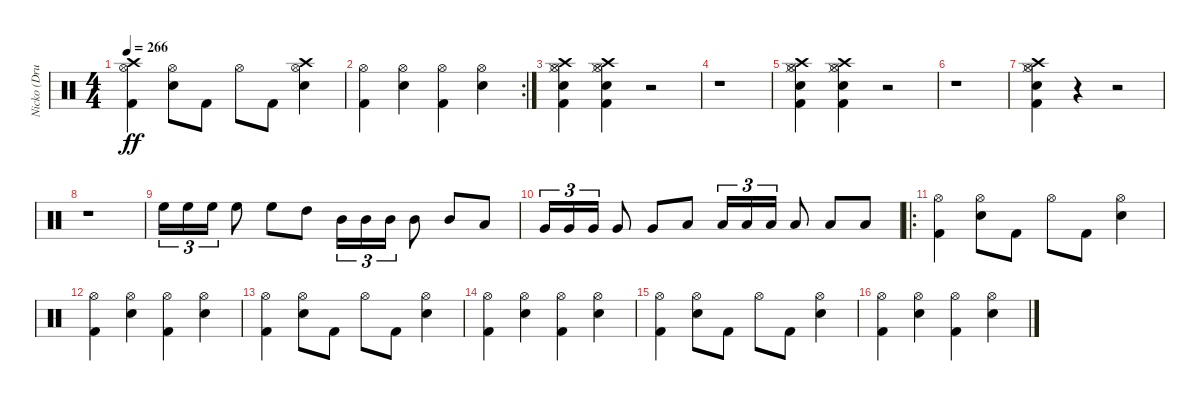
\track ("Nicko (Drums)" "Nicko (Dru") {instrument percussion}
\staff {score}
\articulation defaults
\ts (4 4)
\tempo 266
\clef neutral
\ks c
("Kick (hit) 2" "Hi-Hat (open)" "Crash high (hit)").4{dy ff} ("Snare (hit) 2" "Hi-Hat (open)").8 "Kick (hit) 2".8 "Hi-Hat (open)".8 "Kick (hit) 2".8 ("Snare (hit) 2" "Hi-Hat (open)" "Crash high (hit)").4 |
\rc 2
("Kick (hit) 2" "Hi-Hat (open)").4 ("Snare (hit) 2" "Hi-Hat (open)").4 ("Kick (hit) 2" "Hi-Hat (open)").4 ("Snare (hit) 2" "Hi-Hat (open)").4 |
("Kick (hit) 2" "Snare (hit) 2" "Hi-Hat (closed)" "Hi-Hat (open)" "Crash high (hit)").4 ("Kick (hit) 2" "Snare (hit) 2" "Hi-Hat (closed)" "Hi-Hat (open)" "Crash high (hit)").4 r.2 |
r.1 |
("Kick (hit) 2" "Snare (hit) 2" "Hi-Hat (closed)" "Hi-Hat (open)" "Crash high (hit)").4 ("Kick (hit) 2" "Snare (hit) 2" "Hi-Hat (closed)" "Hi-Hat (open)" "Crash high (hit)").4 r.2 |
r.1 |
("Kick (hit) 2" "Snare (hit) 2" "Hi-Hat (closed)" "Hi-Hat (open)" "Crash high (hit)").4 r.4 r.2 |
r.1 |
"High Floor Tom (hit)".16{tu (3 2)} "High Floor Tom (hit)".16{tu (3 2)} "High Floor Tom (hit)".16{tu (3 2)} "High Floor Tom (hit)".8 "High Floor Tom (hit)".8 "High Tom (hit)".8 "Mid Tom (hit)".16{tu (3 2)} "Mid Tom (hit)".16{tu (3 2)} "Mid Tom (hit)".16{tu (3 2)} "Mid Tom (hit)".8 "Mid Tom (hit)".8 "Low Tom (hit)".8 |
"Very Low Tom (hit)".16{tu (3 2)} "Very Low Tom (hit)".16{tu (3 2)} "Very Low Tom (hit)".16{tu (3 2)} "Very Low Tom (hit)".8 "Very Low Tom (hit)".8 "Low Floor Tom (hit)".8 "Low Floor Tom (hit)".16{tu (3 2)} "Low Floor Tom (hit)".16{tu (3 2)} "Low Floor Tom (hit)".16{tu (3 2)} "Low Floor Tom (hit)".8 "Low Floor Tom (hit)".8 "Low Floor Tom (hit)".8 |
\ro
("Kick (hit) 2" "Hi-Hat (open)").4 ("Snare (hit) 2" "Hi-Hat (open)").8 "Kick (hit) 2".8 "Hi-Hat (open)".8 "Kick (hit) 2".8 ("Snare (hit) 2" "Hi-Hat (open)").4 |
("Kick (hit) 2" "Hi-Hat (open)").4 ("Snare (hit) 2" "Hi-Hat (open)").4 ("Kick (hit) 2" "Hi-Hat (open)").4 ("Snare (hit) 2" "Hi-Hat (open)").4 |
("Kick (hit) 2" "Hi-Hat (open)").4 ("Snare (hit) 2" "Hi-Hat (open)").8 "Kick (hit) 2".8 "Hi-Hat (open)".8 "Kick (hit) 2".8 ("Snare (hit) 2" "Hi-Hat (open)").4 |
("Kick (hit) 2" "Hi-Hat (open)").4 ("Snare (hit) 2" "Hi-Hat (open)").4 ("Kick (hit) 2" "Hi-Hat (open)").4 ("Snare (hit) 2" "Hi-Hat (open)").4 |
("Kick (hit) 2" "Hi-Hat (open)").4 ("Snare (hit) 2" "Hi-Hat (open)").8 "Kick (hit) 2".8 "Hi-Hat (open)".8 "Kick (hit) 2".8 ("Snare (hit) 2" "Hi-Hat (open)").4 |
("Kick (hit) 2" "Hi-Hat (open)").4 ("Snare (hit) 2" "Hi-Hat (open)").4 ("Kick (hit) 2" "Hi-Hat (open)").4 ("Snare (hit) 2" "Hi-Hat (open)").4
